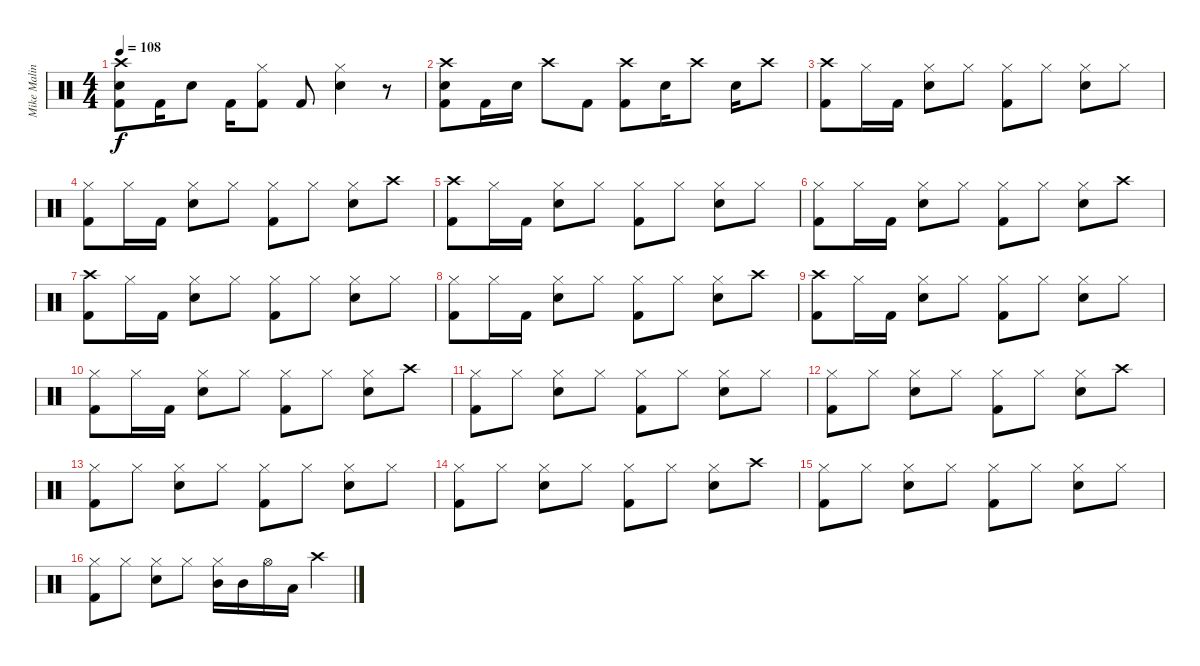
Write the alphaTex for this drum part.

\track ("Mike Malinin (Drums)" "Mike Malin") {instrument percussion}
\staff {score}
\articulation defaults
\ts (4 4)
\tempo 108
\clef neutral
\ks c
("Crash high (hit)" "Electric Snare (hit)" "Kick (hit) 2").8{dy f} "Kick (hit) 2".16 "Electric Snare (hit)".8 "Kick (hit) 2".16 ("Hi-Hat (closed)" "Kick (hit) 2").8 "Kick (hit) 2".8 ("Hi-Hat (closed)" "Electric Snare (hit)").4 r.8 |
("Crash high (hit)" "Electric Snare (hit)" "Kick (hit) 2").8 "Kick (hit) 2".16 "Electric Snare (hit)".16 "Crash high (hit)".8 "Kick (hit) 2".8 ("Crash high (hit)" "Kick (hit) 2").8 "Electric Snare (hit)".16 "Crash high (hit)".8 "Electric Snare (hit)".16 "Crash high (hit)".8 |
("Crash high (hit)" "Kick (hit) 2").8 "Hi-Hat (closed)".16 "Kick (hit) 2".16 ("Hi-Hat (closed)" "Electric Snare (hit)").8 "Hi-Hat (closed)".8 ("Hi-Hat (closed)" "Kick (hit) 2").8 "Hi-Hat (closed)".8 ("Hi-Hat (closed)" "Electric Snare (hit)").8 "Hi-Hat (closed)".8 |
("Hi-Hat (closed)" "Kick (hit) 2").8 "Hi-Hat (closed)".16 "Kick (hit) 2".16 ("Hi-Hat (closed)" "Electric Snare (hit)").8 "Hi-Hat (closed)".8 ("Hi-Hat (closed)" "Kick (hit) 2").8 "Hi-Hat (closed)".8 ("Hi-Hat (closed)" "Electric Snare (hit)").8 "Crash high (hit)".8 |
("Crash high (hit)" "Kick (hit) 2").8 "Hi-Hat (closed)".16 "Kick (hit) 2".16 ("Hi-Hat (closed)" "Electric Snare (hit)").8 "Hi-Hat (closed)".8 ("Hi-Hat (closed)" "Kick (hit) 2").8 "Hi-Hat (closed)".8 ("Hi-Hat (closed)" "Electric Snare (hit)").8 "Hi-Hat (closed)".8 |
("Hi-Hat (closed)" "Kick (hit) 2").8 "Hi-Hat (closed)".16 "Kick (hit) 2".16 ("Hi-Hat (closed)" "Electric Snare (hit)").8 "Hi-Hat (closed)".8 ("Hi-Hat (closed)" "Kick (hit) 2").8 "Hi-Hat (closed)".8 ("Hi-Hat (closed)" "Electric Snare (hit)").8 "Crash high (hit)".8 |
("Crash high (hit)" "Kick (hit) 2").8 "Hi-Hat (closed)".16 "Kick (hit) 2".16 ("Hi-Hat (closed)" "Electric Snare (hit)").8 "Hi-Hat (closed)".8 ("Hi-Hat (closed)" "Kick (hit) 2").8 "Hi-Hat (closed)".8 ("Hi-Hat (closed)" "Electric Snare (hit)").8 "Hi-Hat (closed)".8 |
("Hi-Hat (closed)" "Kick (hit) 2").8 "Hi-Hat (closed)".16 "Kick (hit) 2".16 ("Hi-Hat (closed)" "Electric Snare (hit)").8 "Hi-Hat (closed)".8 ("Hi-Hat (closed)" "Kick (hit) 2").8 "Hi-Hat (closed)".8 ("Hi-Hat (closed)" "Electric Snare (hit)").8 "Crash high (hit)".8 |
("Crash high (hit)" "Kick (hit) 2").8 "Hi-Hat (closed)".16 "Kick (hit) 2".16 ("Hi-Hat (closed)" "Electric Snare (hit)").8 "Hi-Hat (closed)".8 ("Hi-Hat (closed)" "Kick (hit) 2").8 "Hi-Hat (closed)".8 ("Hi-Hat (closed)" "Electric Snare (hit)").8 "Hi-Hat (closed)".8 |
("Hi-Hat (closed)" "Kick (hit) 2").8 "Hi-Hat (closed)".16 "Kick (hit) 2".16 ("Hi-Hat (closed)" "Electric Snare (hit)").8 "Hi-Hat (closed)".8 ("Hi-Hat (closed)" "Kick (hit) 2").8 "Hi-Hat (closed)".8 ("Hi-Hat (closed)" "Electric Snare (hit)").8 "Crash high (hit)".8 |
("Hi-Hat (closed)" "Kick (hit) 2").8 "Hi-Hat (closed)".8 ("Hi-Hat (closed)" "Electric Snare (hit)").8 "Hi-Hat (closed)".8 ("Hi-Hat (closed)" "Kick (hit) 2").8 "Hi-Hat (closed)".8 ("Hi-Hat (closed)" "Electric Snare (hit)").8 "Hi-Hat (closed)".8 |
("Hi-Hat (closed)" "Kick (hit) 2").8 "Hi-Hat (closed)".8 ("Hi-Hat (closed)" "Electric Snare (hit)").8 "Hi-Hat (closed)".8 ("Hi-Hat (closed)" "Kick (hit) 2").8 "Hi-Hat (closed)".8 ("Hi-Hat (closed)" "Electric Snare (hit)").8 "Crash high (hit)".8 |
("Hi-Hat (closed)" "Kick (hit) 2").8 "Hi-Hat (closed)".8 ("Hi-Hat (closed)" "Electric Snare (hit)").8 "Hi-Hat (closed)".8 ("Hi-Hat (closed)" "Kick (hit) 2").8 "Hi-Hat (closed)".8 ("Hi-Hat (closed)" "Electric Snare (hit)").8 "Hi-Hat (closed)".8 |
("Hi-Hat (closed)" "Kick (hit) 2").8 "Hi-Hat (closed)".8 ("Hi-Hat (closed)" "Electric Snare (hit)").8 "Hi-Hat (closed)".8 ("Hi-Hat (closed)" "Kick (hit) 2").8 "Hi-Hat (closed)".8 ("Hi-Hat (closed)" "Electric Snare (hit)").8 "Crash high (hit)".8 |
("Hi-Hat (closed)" "Kick (hit) 2").8 "Hi-Hat (closed)".8 ("Hi-Hat (closed)" "Electric Snare (hit)").8 "Hi-Hat (closed)".8 ("Hi-Hat (closed)" "Kick (hit) 2").8 "Hi-Hat (closed)".8 ("Hi-Hat (closed)" "Electric Snare (hit)").8 "Hi-Hat (closed)".8 |
("Hi-Hat (closed)" "Kick (hit) 2").8 "Hi-Hat (closed)".8 ("Hi-Hat (closed)" "Electric Snare (hit)").8 "Hi-Hat (closed)".8 ("Hi-Hat (closed)" "Mid Tom (hit)").16 "Mid Tom (hit)".16 "Hi-Hat (open)".16 "Low Tom (hit)".16 "Crash high (hit)".4
